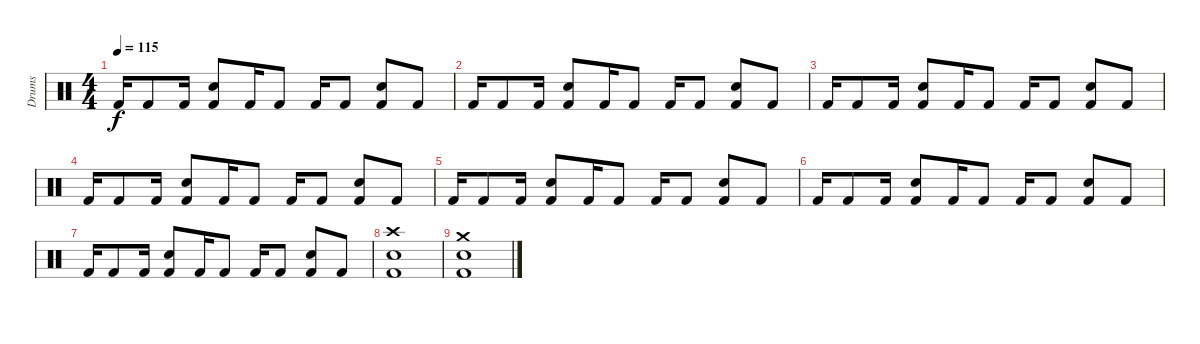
\track ("Drums" "Drums") {instrument percussion}
\staff {score}
\articulation defaults
\ts (4 4)
\tempo 115
\clef neutral
\ks c "Kick (hit) 2".16{dy f} "Kick (hit) 2".8 "Kick (hit) 2".16
("Snare (hit) 2" "Kick (hit) 2").8 "Kick (hit) 2".16 "Kick (hit) 2".8 "Kick (hit) 2".16 "Kick (hit) 2".8 ("Snare (hit) 2" "Kick (hit) 2").8 "Kick (hit) 2".8 |
"Kick (hit) 2".16 "Kick (hit) 2".8 "Kick (hit) 2".16 ("Snare (hit) 2" "Kick (hit) 2").8 "Kick (hit) 2".16 "Kick (hit) 2".8 "Kick (hit) 2".16 "Kick (hit) 2".8 ("Snare (hit) 2" "Kick (hit) 2").8 "Kick (hit) 2".8 |
"Kick (hit) 2".16 "Kick (hit) 2".8 "Kick (hit) 2".16 ("Snare (hit) 2" "Kick (hit) 2").8 "Kick (hit) 2".16 "Kick (hit) 2".8 "Kick (hit) 2".16 "Kick (hit) 2".8 ("Snare (hit) 2" "Kick (hit) 2").8 "Kick (hit) 2".8 |
"Kick (hit) 2".16 "Kick (hit) 2".8 "Kick (hit) 2".16 ("Snare (hit) 2" "Kick (hit) 2").8 "Kick (hit) 2".16 "Kick (hit) 2".8 "Kick (hit) 2".16 "Kick (hit) 2".8 ("Snare (hit) 2" "Kick (hit) 2").8 "Kick (hit) 2".8 |
"Kick (hit) 2".16 "Kick (hit) 2".8 "Kick (hit) 2".16 ("Snare (hit) 2" "Kick (hit) 2").8 "Kick (hit) 2".16 "Kick (hit) 2".8 "Kick (hit) 2".16 "Kick (hit) 2".8 ("Snare (hit) 2" "Kick (hit) 2").8 "Kick (hit) 2".8 |
"Kick (hit) 2".16 "Kick (hit) 2".8 "Kick (hit) 2".16 ("Snare (hit) 2" "Kick (hit) 2").8 "Kick (hit) 2".16 "Kick (hit) 2".8 "Kick (hit) 2".16 "Kick (hit) 2".8 ("Snare (hit) 2" "Kick (hit) 2").8 "Kick (hit) 2".8 |
"Kick (hit) 2".16 "Kick (hit) 2".8 "Kick (hit) 2".16 ("Snare (hit) 2" "Kick (hit) 2").8 "Kick (hit) 2".16 "Kick (hit) 2".8 "Kick (hit) 2".16 "Kick (hit) 2".8 ("Snare (hit) 2" "Kick (hit) 2").8 "Kick (hit) 2".8 |
("Crash high (hit)" "Snare (hit) 2" "Kick (hit) 2").1 |
("Crash medium (hit)" "Snare (hit) 2" "Kick (hit) 2").1
